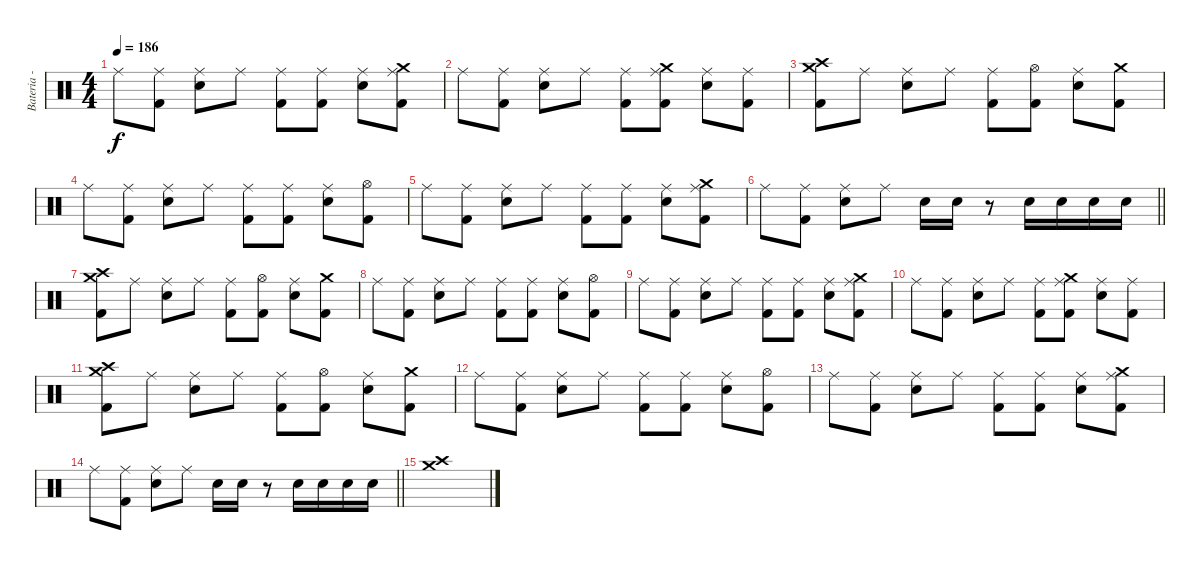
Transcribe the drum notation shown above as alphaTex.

\track ("Bateria - Larzon" "Bateria - ") {instrument percussion}
\staff {score}
\articulation defaults
\ts (4 4)
\tempo 186
\clef neutral
\ks c "Ride (middle)".8{dy f}
("Kick (hit) 2" "Ride (middle)").8 ("Snare (hit) 2" "Ride (middle)").8 "Ride (middle)".8 ("Kick (hit) 2" "Ride (middle)").8 ("Kick (hit) 2" "Ride (middle)").8 ("Snare (hit) 2" "Ride (middle)").8 ("Kick (hit) 2" "Ride (middle)" "Crash medium (hit)").8 |
"Ride (middle)".8 ("Kick (hit) 2" "Ride (middle)").8 ("Snare (hit) 2" "Ride (middle)").8 "Ride (middle)".8 ("Kick (hit) 2" "Ride (middle)").8 ("Kick (hit) 2" "Ride (middle)" "Crash medium (hit)").8 ("Snare (hit) 2" "Ride (middle)").8 ("Kick (hit) 2" "Ride (middle)").8 |
("Kick (hit) 2" "Crash medium (hit)" "Crash high (hit)").8 "Ride (middle)".8 ("Snare (hit) 2" "Ride (middle)").8 "Ride (middle)".8 ("Kick (hit) 2" "Ride (middle)").8 ("Kick (hit) 2" "Hi-Hat (open)").8 ("Snare (hit) 2" "Ride (middle)").8 ("Kick (hit) 2" "Crash medium (hit)").8 |
"Ride (middle)".8 ("Kick (hit) 2" "Ride (middle)").8 ("Snare (hit) 2" "Ride (middle)").8 "Ride (middle)".8 ("Kick (hit) 2" "Ride (middle)").8 ("Kick (hit) 2" "Ride (middle)").8 ("Snare (hit) 2" "Ride (middle)").8 ("Kick (hit) 2" "Hi-Hat (open)").8 |
"Ride (middle)".8 ("Kick (hit) 2" "Ride (middle)").8 ("Snare (hit) 2" "Ride (middle)").8 "Ride (middle)".8 ("Kick (hit) 2" "Ride (middle)").8 ("Kick (hit) 2" "Ride (middle)").8 ("Snare (hit) 2" "Ride (middle)").8 ("Kick (hit) 2" "Ride (middle)" "Crash medium (hit)").8 |
\barLineRight lightlight "Ride (middle)".8
("Kick (hit) 2" "Ride (middle)").8 ("Snare (hit) 2" "Ride (middle)").8 "Ride (middle)".8 "Snare (hit) 2".16 "Snare (hit) 2".16 r.8 "Snare (hit) 2".16 "Snare (hit) 2".16 "Snare (hit) 2".16 "Snare (hit) 2".16 |
("Kick (hit) 2" "Crash medium (hit)" "Crash high (hit)").8 "Ride (middle)".8 ("Snare (hit) 2" "Ride (middle)").8 "Ride (middle)".8 ("Kick (hit) 2" "Ride (middle)").8 ("Kick (hit) 2" "Hi-Hat (open)").8 ("Snare (hit) 2" "Ride (middle)").8 ("Kick (hit) 2" "Crash medium (hit)").8 |
"Ride (middle)".8 ("Kick (hit) 2" "Ride (middle)").8 ("Snare (hit) 2" "Ride (middle)").8 "Ride (middle)".8 ("Kick (hit) 2" "Ride (middle)").8 ("Kick (hit) 2" "Ride (middle)").8 ("Snare (hit) 2" "Ride (middle)").8 ("Kick (hit) 2" "Hi-Hat (open)").8 |
"Ride (middle)".8 ("Kick (hit) 2" "Ride (middle)").8 ("Snare (hit) 2" "Ride (middle)").8 "Ride (middle)".8 ("Kick (hit) 2" "Ride (middle)").8 ("Kick (hit) 2" "Ride (middle)").8 ("Snare (hit) 2" "Ride (middle)").8 ("Kick (hit) 2" "Ride (middle)" "Crash medium (hit)").8 |
"Ride (middle)".8 ("Kick (hit) 2" "Ride (middle)").8 ("Snare (hit) 2" "Ride (middle)").8 "Ride (middle)".8 ("Kick (hit) 2" "Ride (middle)").8 ("Kick (hit) 2" "Ride (middle)" "Crash medium (hit)").8 ("Snare (hit) 2" "Ride (middle)").8 ("Kick (hit) 2" "Ride (middle)").8 |
("Kick (hit) 2" "Crash medium (hit)" "Crash high (hit)").8 "Ride (middle)".8 ("Snare (hit) 2" "Ride (middle)").8 "Ride (middle)".8 ("Kick (hit) 2" "Ride (middle)").8 ("Kick (hit) 2" "Hi-Hat (open)").8 ("Snare (hit) 2" "Ride (middle)").8 ("Kick (hit) 2" "Crash medium (hit)").8 |
"Ride (middle)".8 ("Kick (hit) 2" "Ride (middle)").8 ("Snare (hit) 2" "Ride (middle)").8 "Ride (middle)".8 ("Kick (hit) 2" "Ride (middle)").8 ("Kick (hit) 2" "Ride (middle)").8 ("Snare (hit) 2" "Ride (middle)").8 ("Kick (hit) 2" "Hi-Hat (open)").8 |
"Ride (middle)".8 ("Kick (hit) 2" "Ride (middle)").8 ("Snare (hit) 2" "Ride (middle)").8 "Ride (middle)".8 ("Kick (hit) 2" "Ride (middle)").8 ("Kick (hit) 2" "Ride (middle)").8 ("Snare (hit) 2" "Ride (middle)").8 ("Kick (hit) 2" "Ride (middle)" "Crash medium (hit)").8 |
\barLineRight lightlight "Ride (middle)".8{volume 16}
("Kick (hit) 2" "Ride (middle)").8 ("Snare (hit) 2" "Ride (middle)").8 "Ride (middle)".8 "Snare (hit) 2".16 "Snare (hit) 2".16 r.8 "Snare (hit) 2".16 "Snare (hit) 2".16 "Snare (hit) 2".16 "Snare (hit) 2".16 |
("Crash medium (hit)" "Crash high (hit)").1
